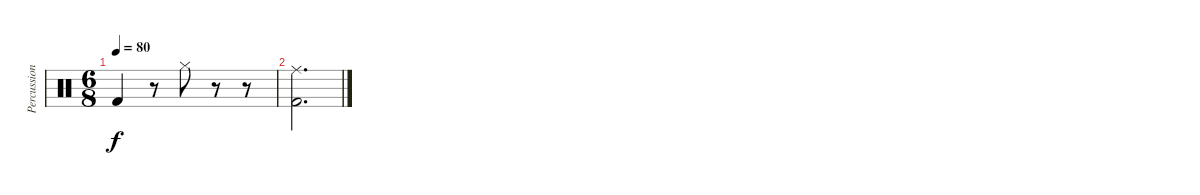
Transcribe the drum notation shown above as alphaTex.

\track ("Percussion" "Percussion") {instrument percussion}
\staff {score}
\articulation defaults
\ts (6 8)
\tempo 80
\clef neutral
\ks c "Kick (hit) 2".4{dy f volume 6}
r.8 "Hi-Hat (closed)".8{volume 13} r.8 r.8 |
("Ride (middle)" "Kick (hit) 2").2{d volume 6}
